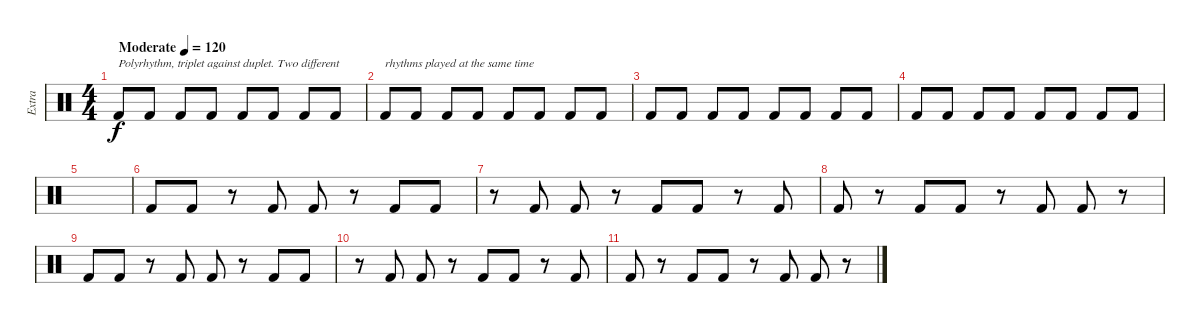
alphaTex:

\track ("Extra" "Extra") {instrument percussion}
\staff {score}
\articulation defaults
\ts (4 4)
\section ("" "")
\tempo (120 "Moderate")
\clef neutral
\ks c "Kick (hit) 2".8{txt "Polyrhythm, triplet against duplet. Two different" dy f} "Kick (hit) 2".8 "Kick (hit) 2".8 "Kick (hit) 2".8 "Kick (hit) 2".8 "Kick (hit) 2".8 "Kick (hit) 2".8 "Kick (hit) 2".8
|
"Kick (hit) 2".8{txt "rhythms played at the same time"} "Kick (hit) 2".8 "Kick (hit) 2".8 "Kick (hit) 2".8 "Kick (hit) 2".8 "Kick (hit) 2".8 "Kick (hit) 2".8 "Kick (hit) 2".8 |
"Kick (hit) 2".8 "Kick (hit) 2".8 "Kick (hit) 2".8 "Kick (hit) 2".8 "Kick (hit) 2".8 "Kick (hit) 2".8 "Kick (hit) 2".8 "Kick (hit) 2".8 |
"Kick (hit) 2".8 "Kick (hit) 2".8 "Kick (hit) 2".8 "Kick (hit) 2".8 "Kick (hit) 2".8 "Kick (hit) 2".8 "Kick (hit) 2".8 "Kick (hit) 2".8 |
|
"Kick (hit) 2".8 "Kick (hit) 2".8 r.8 "Kick (hit) 2".8 "Kick (hit) 2".8 r.8 "Kick (hit) 2".8 "Kick (hit) 2".8 |
r.8 "Kick (hit) 2".8 "Kick (hit) 2".8 r.8 "Kick (hit) 2".8 "Kick (hit) 2".8 r.8 "Kick (hit) 2".8 |
"Kick (hit) 2".8 r.8 "Kick (hit) 2".8 "Kick (hit) 2".8 r.8 "Kick (hit) 2".8 "Kick (hit) 2".8 r.8 |
"Kick (hit) 2".8 "Kick (hit) 2".8 r.8 "Kick (hit) 2".8 "Kick (hit) 2".8 r.8 "Kick (hit) 2".8 "Kick (hit) 2".8 |
r.8 "Kick (hit) 2".8 "Kick (hit) 2".8 r.8 "Kick (hit) 2".8 "Kick (hit) 2".8 r.8 "Kick (hit) 2".8 |
"Kick (hit) 2".8 r.8 "Kick (hit) 2".8 "Kick (hit) 2".8 r.8 "Kick (hit) 2".8 "Kick (hit) 2".8 r.8
